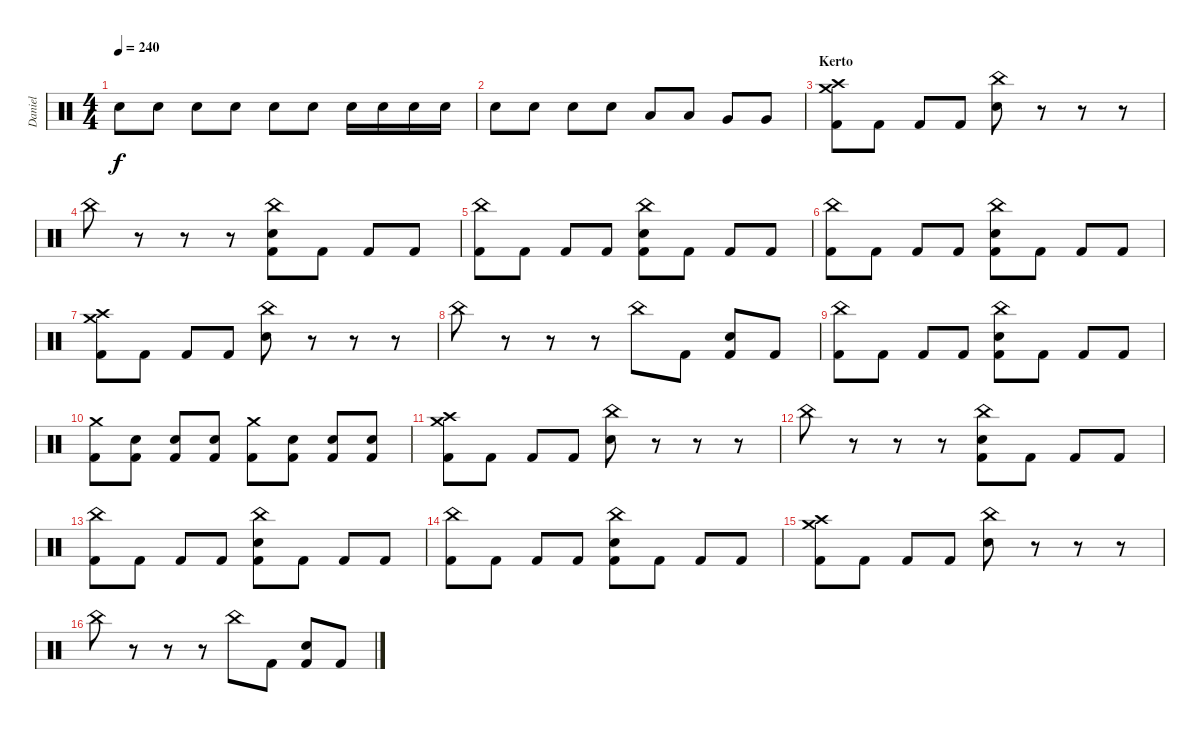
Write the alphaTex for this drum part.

\track ("Daniel" "Daniel") {instrument percussion}
\staff {score}
\articulation defaults
\ts (4 4)
\tempo 240
\clef neutral
\ks c "Electric Snare (hit)".8{dy f} "Electric Snare (hit)".8 "Electric Snare (hit)".8 "Electric Snare (hit)".8 "Electric Snare (hit)".8 "Electric Snare (hit)".8 "Electric Snare (hit)".16 "Electric Snare (hit)".16 "Electric Snare (hit)".16 "Electric Snare (hit)".16
|
"Electric Snare (hit)".8 "Electric Snare (hit)".8 "Electric Snare (hit)".8 "Electric Snare (hit)".8 "Low Tom (hit)".8 "Low Tom (hit)".8 "Very Low Tom (hit)".8 "Very Low Tom (hit)".8 |
\section ("" "Kerto")
("Crash medium (hit)" "Crash high (hit)" "Kick (hit) 2").8 "Kick (hit) 2".8 "Kick (hit) 2".8 "Kick (hit) 2".8 ("China (hit)" "Electric Snare (hit)").8 r.8 r.8 r.8 |
"China (hit)".8 r.8 r.8 r.8 ("China (hit)" "Electric Snare (hit)" "Kick (hit) 2").8 "Kick (hit) 2".8 "Kick (hit) 2".8 "Kick (hit) 2".8 |
("China (hit)" "Kick (hit) 2").8 "Kick (hit) 2".8 "Kick (hit) 2".8 "Kick (hit) 2".8 ("China (hit)" "Electric Snare (hit)" "Kick (hit) 2").8 "Kick (hit) 2".8 "Kick (hit) 2".8 "Kick (hit) 2".8 |
("China (hit)" "Kick (hit) 2").8 "Kick (hit) 2".8 "Kick (hit) 2".8 "Kick (hit) 2".8 ("China (hit)" "Electric Snare (hit)" "Kick (hit) 2").8 "Kick (hit) 2".8 "Kick (hit) 2".8 "Kick (hit) 2".8 |
("Crash medium (hit)" "Crash high (hit)" "Kick (hit) 2").8 "Kick (hit) 2".8 "Kick (hit) 2".8 "Kick (hit) 2".8 ("China (hit)" "Electric Snare (hit)").8 r.8 r.8 r.8 |
"China (hit)".8 r.8 r.8 r.8 "China (hit)".8 "Kick (hit) 2".8 ("Electric Snare (hit)" "Kick (hit) 2").8 "Kick (hit) 2".8 |
("China (hit)" "Kick (hit) 2").8 "Kick (hit) 2".8 "Kick (hit) 2".8 "Kick (hit) 2".8 ("China (hit)" "Electric Snare (hit)" "Kick (hit) 2").8 "Kick (hit) 2".8 "Kick (hit) 2".8 "Kick (hit) 2".8 |
("Crash medium (hit)" "Kick (hit) 2").8 ("Electric Snare (hit)" "Kick (hit) 2").8 ("Electric Snare (hit)" "Kick (hit) 2").8 ("Electric Snare (hit)" "Kick (hit) 2").8 ("Crash medium (hit)" "Kick (hit) 2").8 ("Electric Snare (hit)" "Kick (hit) 2").8 ("Electric Snare (hit)" "Kick (hit) 2").8 ("Electric Snare (hit)" "Kick (hit) 2").8 |
("Crash medium (hit)" "Crash high (hit)" "Kick (hit) 2").8 "Kick (hit) 2".8 "Kick (hit) 2".8 "Kick (hit) 2".8 ("China (hit)" "Electric Snare (hit)").8 r.8 r.8 r.8 |
"China (hit)".8 r.8 r.8 r.8 ("China (hit)" "Electric Snare (hit)" "Kick (hit) 2").8 "Kick (hit) 2".8 "Kick (hit) 2".8 "Kick (hit) 2".8 |
("China (hit)" "Kick (hit) 2").8 "Kick (hit) 2".8 "Kick (hit) 2".8 "Kick (hit) 2".8 ("China (hit)" "Electric Snare (hit)" "Kick (hit) 2").8 "Kick (hit) 2".8 "Kick (hit) 2".8 "Kick (hit) 2".8 |
("China (hit)" "Kick (hit) 2").8 "Kick (hit) 2".8 "Kick (hit) 2".8 "Kick (hit) 2".8 ("China (hit)" "Electric Snare (hit)" "Kick (hit) 2").8 "Kick (hit) 2".8 "Kick (hit) 2".8 "Kick (hit) 2".8 |
("Crash medium (hit)" "Crash high (hit)" "Kick (hit) 2").8 "Kick (hit) 2".8 "Kick (hit) 2".8 "Kick (hit) 2".8 ("China (hit)" "Electric Snare (hit)").8 r.8 r.8 r.8 |
"China (hit)".8 r.8 r.8 r.8 "China (hit)".8 "Kick (hit) 2".8 ("Electric Snare (hit)" "Kick (hit) 2").8 "Kick (hit) 2".8
